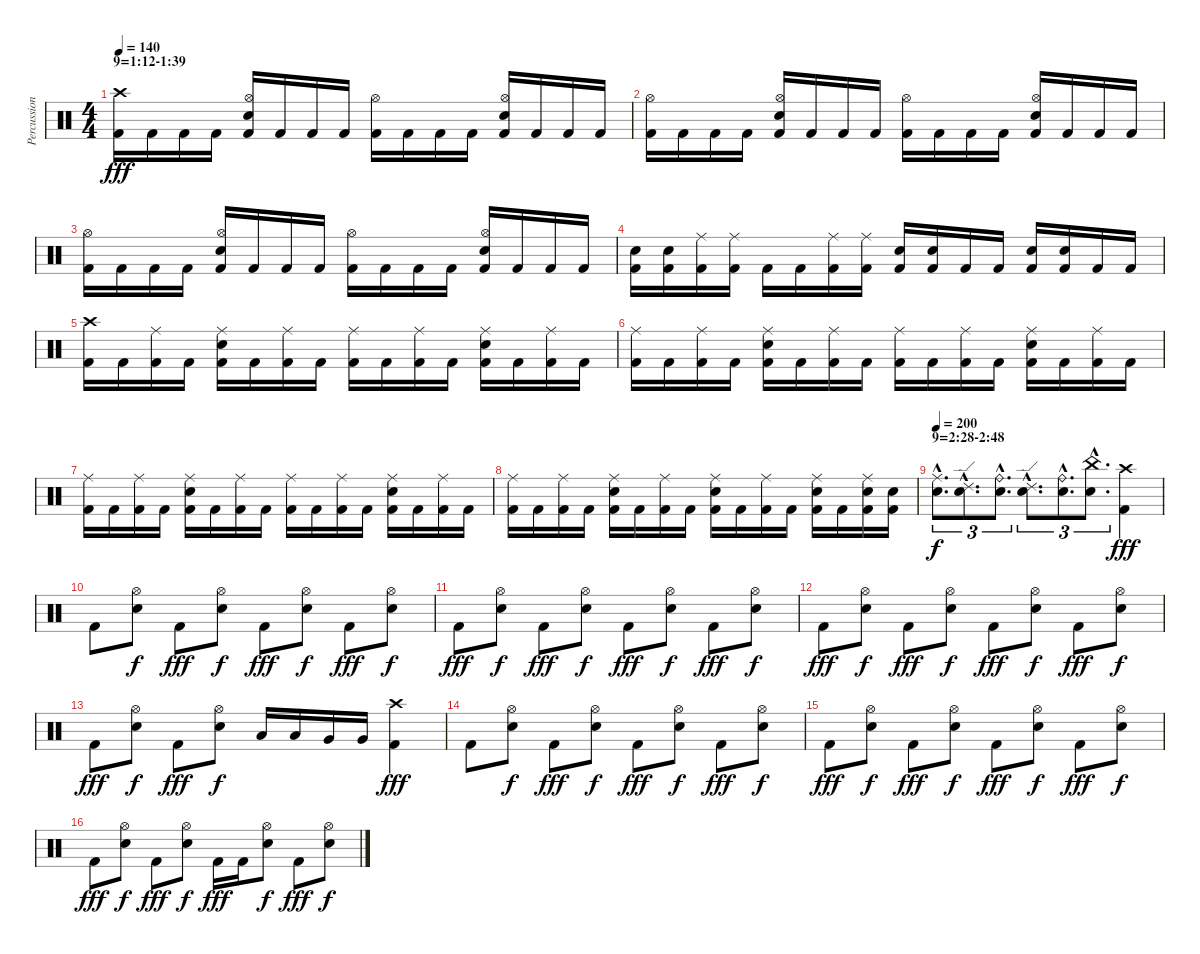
\track ("Percussion" "Percussion") {instrument percussion}
\staff {score}
\articulation defaults
\ts (4 4)
\section ("" "9=1:12-1:39")
\tempo 140
\clef neutral
\ks c
("Crash high (hit)" "Kick (hit) 2").16{dy fff} "Kick (hit) 2".16 "Kick (hit) 2".16 "Kick (hit) 2".16 ("Hi-Hat (open)" "Snare (hit) 2" "Kick (hit) 2").16 "Kick (hit) 2".16 "Kick (hit) 2".16 "Kick (hit) 2".16 ("Hi-Hat (open)" "Kick (hit) 2").16 "Kick (hit) 2".16 "Kick (hit) 2".16 "Kick (hit) 2".16 ("Hi-Hat (open)" "Snare (hit) 2" "Kick (hit) 2").16 "Kick (hit) 2".16 "Kick (hit) 2".16 "Kick (hit) 2".16 |
("Hi-Hat (open)" "Kick (hit) 2").16 "Kick (hit) 2".16 "Kick (hit) 2".16 "Kick (hit) 2".16 ("Hi-Hat (open)" "Snare (hit) 2" "Kick (hit) 2").16 "Kick (hit) 2".16 "Kick (hit) 2".16 "Kick (hit) 2".16 ("Hi-Hat (open)" "Kick (hit) 2").16 "Kick (hit) 2".16 "Kick (hit) 2".16 "Kick (hit) 2".16 ("Hi-Hat (open)" "Snare (hit) 2" "Kick (hit) 2").16 "Kick (hit) 2".16 "Kick (hit) 2".16 "Kick (hit) 2".16 |
("Hi-Hat (open)" "Kick (hit) 2").16 "Kick (hit) 2".16 "Kick (hit) 2".16 "Kick (hit) 2".16 ("Hi-Hat (open)" "Snare (hit) 2" "Kick (hit) 2").16 "Kick (hit) 2".16 "Kick (hit) 2".16 "Kick (hit) 2".16 ("Hi-Hat (open)" "Kick (hit) 2").16 "Kick (hit) 2".16 "Kick (hit) 2".16 "Kick (hit) 2".16 ("Hi-Hat (open)" "Snare (hit) 2" "Kick (hit) 2").16 "Kick (hit) 2".16 "Kick (hit) 2".16 "Kick (hit) 2".16 |
("Snare (hit) 2" "Kick (hit) 2").16 ("Snare (hit) 2" "Kick (hit) 2").16 ("Ride (middle)" "Kick (hit) 2").16 ("Ride (middle)" "Kick (hit) 2").16 "Kick (hit) 2".16 "Kick (hit) 2".16 ("Ride (middle)" "Kick (hit) 2").16 ("Ride (middle)" "Kick (hit) 2").16 ("Snare (hit) 2" "Kick (hit) 2").16 ("Snare (hit) 2" "Kick (hit) 2").16 "Kick (hit) 2".16 "Kick (hit) 2".16 ("Snare (hit) 2" "Kick (hit) 2").16 ("Snare (hit) 2" "Kick (hit) 2").16 "Kick (hit) 2".16 "Kick (hit) 2".16 |
("Crash high (hit)" "Kick (hit) 2").16 "Kick (hit) 2".16 ("Ride (middle)" "Kick (hit) 2").16 "Kick (hit) 2".16 ("Ride (middle)" "Snare (hit) 2" "Kick (hit) 2").16 "Kick (hit) 2".16 ("Ride (middle)" "Kick (hit) 2").16 "Kick (hit) 2".16 ("Ride (middle)" "Kick (hit) 2").16 "Kick (hit) 2".16 ("Ride (middle)" "Kick (hit) 2").16 "Kick (hit) 2".16 ("Ride (middle)" "Snare (hit) 2" "Kick (hit) 2").16 "Kick (hit) 2".16 ("Ride (middle)" "Kick (hit) 2").16 "Kick (hit) 2".16 |
("Ride (middle)" "Kick (hit) 2").16 "Kick (hit) 2".16 ("Ride (middle)" "Kick (hit) 2").16 "Kick (hit) 2".16 ("Ride (middle)" "Snare (hit) 2" "Kick (hit) 2").16 "Kick (hit) 2".16 ("Ride (middle)" "Kick (hit) 2").16 "Kick (hit) 2".16 ("Ride (middle)" "Kick (hit) 2").16 "Kick (hit) 2".16 ("Ride (middle)" "Kick (hit) 2").16 "Kick (hit) 2".16 ("Ride (middle)" "Snare (hit) 2" "Kick (hit) 2").16 "Kick (hit) 2".16 ("Ride (middle)" "Kick (hit) 2").16 "Kick (hit) 2".16 |
("Ride (middle)" "Kick (hit) 2").16 "Kick (hit) 2".16 ("Ride (middle)" "Kick (hit) 2").16 "Kick (hit) 2".16 ("Ride (middle)" "Snare (hit) 2" "Kick (hit) 2").16 "Kick (hit) 2".16 ("Ride (middle)" "Kick (hit) 2").16 "Kick (hit) 2".16 ("Ride (middle)" "Kick (hit) 2").16 "Kick (hit) 2".16 ("Ride (middle)" "Kick (hit) 2").16 "Kick (hit) 2".16 ("Ride (middle)" "Snare (hit) 2" "Kick (hit) 2").16 "Kick (hit) 2".16 ("Ride (middle)" "Kick (hit) 2").16 "Kick (hit) 2".16 |
("Ride (middle)" "Kick (hit) 2").16 "Kick (hit) 2".16 ("Ride (middle)" "Kick (hit) 2").16 "Kick (hit) 2".16 ("Ride (middle)" "Snare (hit) 2" "Kick (hit) 2").16 "Kick (hit) 2".16 ("Ride (middle)" "Kick (hit) 2").16 "Kick (hit) 2".16 ("Ride (middle)" "Snare (hit) 2" "Kick (hit) 2").16 "Kick (hit) 2".16 ("Ride (middle)" "Kick (hit) 2").16 "Kick (hit) 2".16 ("Ride (middle)" "Snare (hit) 2" "Kick (hit) 2").16 "Kick (hit) 2".16 ("Ride (middle)" "Snare (hit) 2" "Kick (hit) 2").16 ("Snare (hit) 2" "Kick (hit) 2").16 |
\section ("" "9=2:28-2:48")
\tempo 200
("Ride (middle)"{hac} "Snare (hit) 2"{hac}).8{d tu (3 2) dy f} ("Ride (edge) 2"{hac} "Snare (hit) 2"{hac}).8{d tu (3 2)} ("Ride (bell)"{hac} "Snare (hit) 2"{hac}).8{d tu (3 2)} ("Ride (edge) 2"{hac} "Snare (hit) 2"{hac}).8{d tu (3 2)} ("Ride (bell)"{hac} "Snare (hit) 2"{hac}).8{d tu (3 2)} ("China (hit)"{hac} "Snare (hit) 2"{hac}).8{d tu (3 2)} ("Crash high (hit)" "Kick (hit) 2").4{dy fff} |
"Kick (hit) 2".8 ("Hi-Hat (open)" "Snare (hit) 2").8{dy f} "Kick (hit) 2".8{dy fff} ("Hi-Hat (open)" "Snare (hit) 2").8{dy f} "Kick (hit) 2".8{dy fff} ("Hi-Hat (open)" "Snare (hit) 2").8{dy f} "Kick (hit) 2".8{dy fff} ("Hi-Hat (open)" "Snare (hit) 2").8{dy f} |
"Kick (hit) 2".8{dy fff} ("Hi-Hat (open)" "Snare (hit) 2").8{dy f} "Kick (hit) 2".8{dy fff} ("Hi-Hat (open)" "Snare (hit) 2").8{dy f} "Kick (hit) 2".8{dy fff} ("Hi-Hat (open)" "Snare (hit) 2").8{dy f} "Kick (hit) 2".8{dy fff} ("Hi-Hat (open)" "Snare (hit) 2").8{dy f} |
"Kick (hit) 2".8{dy fff} ("Hi-Hat (open)" "Snare (hit) 2").8{dy f} "Kick (hit) 2".8{dy fff} ("Hi-Hat (open)" "Snare (hit) 2").8{dy f} "Kick (hit) 2".8{dy fff} ("Hi-Hat (open)" "Snare (hit) 2").8{dy f} "Kick (hit) 2".8{dy fff} ("Hi-Hat (open)" "Snare (hit) 2").8{dy f} |
"Kick (hit) 2".8{dy fff} ("Hi-Hat (open)" "Snare (hit) 2").8{dy f} "Kick (hit) 2".8{dy fff} ("Hi-Hat (open)" "Snare (hit) 2").8{dy f} "Low Tom (hit)".16 "Low Tom (hit)".16 "Very Low Tom (hit)".16 "Very Low Tom (hit)".16 ("Crash high (hit)" "Kick (hit) 2").4{dy fff} |
"Kick (hit) 2".8 ("Hi-Hat (open)" "Snare (hit) 2").8{dy f} "Kick (hit) 2".8{dy fff} ("Hi-Hat (open)" "Snare (hit) 2").8{dy f} "Kick (hit) 2".8{dy fff} ("Hi-Hat (open)" "Snare (hit) 2").8{dy f} "Kick (hit) 2".8{dy fff} ("Hi-Hat (open)" "Snare (hit) 2").8{dy f} |
"Kick (hit) 2".8{dy fff} ("Hi-Hat (open)" "Snare (hit) 2").8{dy f} "Kick (hit) 2".8{dy fff} ("Hi-Hat (open)" "Snare (hit) 2").8{dy f} "Kick (hit) 2".8{dy fff} ("Hi-Hat (open)" "Snare (hit) 2").8{dy f} "Kick (hit) 2".8{dy fff} ("Hi-Hat (open)" "Snare (hit) 2").8{dy f} |
"Kick (hit) 2".8{dy fff} ("Hi-Hat (open)" "Snare (hit) 2").8{dy f} "Kick (hit) 2".8{dy fff} ("Hi-Hat (open)" "Snare (hit) 2").8{dy f} "Kick (hit) 2".16{dy fff} "Kick (hit) 2".16 ("Hi-Hat (open)" "Snare (hit) 2").8{dy f} "Kick (hit) 2".8{dy fff} ("Hi-Hat (open)" "Snare (hit) 2").8{dy f}
